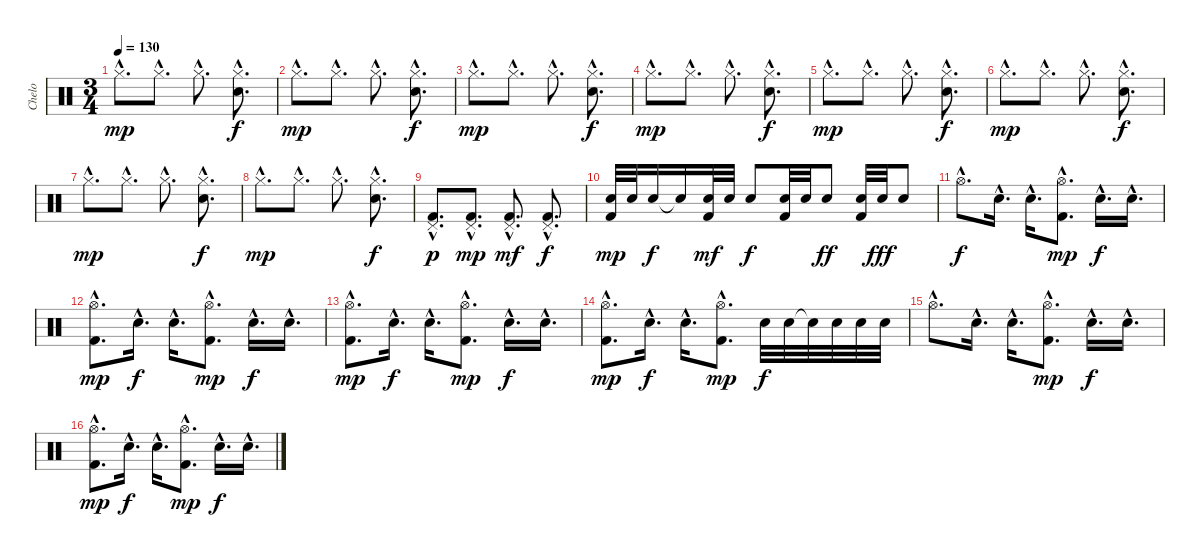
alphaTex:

\track ("Chelo" "Chelo") {instrument percussion}
\staff {score}
\articulation defaults
\ts (3 4)
\tempo 130
\clef neutral
\ks c "Hi-Hat (closed)"{hac}.8{d dy mp} "Hi-Hat (closed)"{hac}.8{d} "Hi-Hat (closed)"{hac}.8{d}
("Electric Snare (hit)"{hac} "Hi-Hat (closed)"{hac}).8{d dy f} |
"Hi-Hat (closed)"{hac}.8{d dy mp} "Hi-Hat (closed)"{hac}.8{d} "Hi-Hat (closed)"{hac}.8{d} ("Electric Snare (hit)"{hac} "Hi-Hat (closed)"{hac}).8{d dy f} |
"Hi-Hat (closed)"{hac}.8{d dy mp} "Hi-Hat (closed)"{hac}.8{d} "Hi-Hat (closed)"{hac}.8{d} ("Electric Snare (hit)"{hac} "Hi-Hat (closed)"{hac}).8{d dy f} |
"Hi-Hat (closed)"{hac}.8{d dy mp} "Hi-Hat (closed)"{hac}.8{d} "Hi-Hat (closed)"{hac}.8{d} ("Electric Snare (hit)"{hac} "Hi-Hat (closed)"{hac}).8{d dy f} |
"Hi-Hat (closed)"{hac}.8{d dy mp} "Hi-Hat (closed)"{hac}.8{d} "Hi-Hat (closed)"{hac}.8{d} ("Electric Snare (hit)"{hac} "Hi-Hat (closed)"{hac}).8{d dy f} |
"Hi-Hat (closed)"{hac}.8{d dy mp} "Hi-Hat (closed)"{hac}.8{d} "Hi-Hat (closed)"{hac}.8{d} ("Electric Snare (hit)"{hac} "Hi-Hat (closed)"{hac}).8{d dy f} |
"Hi-Hat (closed)"{hac}.8{d dy mp} "Hi-Hat (closed)"{hac}.8{d} "Hi-Hat (closed)"{hac}.8{d} ("Electric Snare (hit)"{hac} "Hi-Hat (closed)"{hac}).8{d dy f} |
"Hi-Hat (closed)"{hac}.8{d dy mp} "Hi-Hat (closed)"{hac}.8{d} "Hi-Hat (closed)"{hac}.8{d} ("Electric Snare (hit)"{hac} "Hi-Hat (closed)"{hac}).8{d dy f} |
("Kick (hit) 2"{hac} "Pedal Hi-Hat (hit)"{hac}).8{d dy p} ("Kick (hit) 2"{hac} "Pedal Hi-Hat (hit)"{hac}).8{d dy mp} ("Kick (hit) 2"{hac} "Pedal Hi-Hat (hit)"{hac}).8{d dy mf} ("Kick (hit) 2"{hac} "Pedal Hi-Hat (hit)"{hac}).8{d dy f} |
("Electric Snare (hit)" "Kick (hit) 2").32{dy mp} "Electric Snare (hit)".32 "Electric Snare (hit)".16{dy f} "Electric Snare (hit)"{t}.16 ("Electric Snare (hit)" "Kick (hit) 2").32{dy mf} "Electric Snare (hit)".32 "Electric Snare (hit)".8{dy f} ("Electric Snare (hit)" "Kick (hit) 2").32 "Electric Snare (hit)".32 "Electric Snare (hit)".8{dy ff} ("Electric Snare (hit)" "Kick (hit) 2").32 "Electric Snare (hit)".32{dy fff} "Electric Snare (hit)".8 |
"Hi-Hat (open)"{hac}.8{d dy f} "Electric Snare (hit)"{hac}.16{d} "Electric Snare (hit)"{hac}.16{d} ("Hi-Hat (open)"{hac} "Kick (hit) 2"{hac}).8{d dy mp} "Electric Snare (hit)"{hac}.16{d dy f} "Electric Snare (hit)"{hac}.16{d} |
("Hi-Hat (open)"{hac} "Kick (hit) 2"{hac}).8{d dy mp} "Electric Snare (hit)"{hac}.16{d dy f} "Electric Snare (hit)"{hac}.16{d} ("Hi-Hat (open)"{hac} "Kick (hit) 2"{hac}).8{d dy mp} "Electric Snare (hit)"{hac}.16{d dy f} "Electric Snare (hit)"{hac}.16{d} |
("Hi-Hat (open)"{hac} "Kick (hit) 2"{hac}).8{d dy mp} "Electric Snare (hit)"{hac}.16{d dy f} "Electric Snare (hit)"{hac}.16{d} ("Hi-Hat (open)"{hac} "Kick (hit) 2"{hac}).8{d dy mp} "Electric Snare (hit)"{hac}.16{d dy f} "Electric Snare (hit)"{hac}.16{d} |
("Hi-Hat (open)"{hac} "Kick (hit) 2"{hac}).8{d dy mp} "Electric Snare (hit)"{hac}.16{d dy f} "Electric Snare (hit)"{hac}.16{d} ("Hi-Hat (open)"{hac} "Kick (hit) 2"{hac}).8{d dy mp} "Electric Snare (hit)".32{dy f} "Electric Snare (hit)".32 "Electric Snare (hit)"{t}.32 "Electric Snare (hit)".32 "Electric Snare (hit)".32 "Electric Snare (hit)".32 |
"Hi-Hat (open)"{hac}.8{d} "Electric Snare (hit)"{hac}.16{d} "Electric Snare (hit)"{hac}.16{d} ("Hi-Hat (open)"{hac} "Kick (hit) 2"{hac}).8{d dy mp} "Electric Snare (hit)"{hac}.16{d dy f} "Electric Snare (hit)"{hac}.16{d} |
("Hi-Hat (open)"{hac} "Kick (hit) 2"{hac}).8{d dy mp} "Electric Snare (hit)"{hac}.16{d dy f} "Electric Snare (hit)"{hac}.16{d} ("Hi-Hat (open)"{hac} "Kick (hit) 2"{hac}).8{d dy mp} "Electric Snare (hit)"{hac}.16{d dy f} "Electric Snare (hit)"{hac}.16{d}
